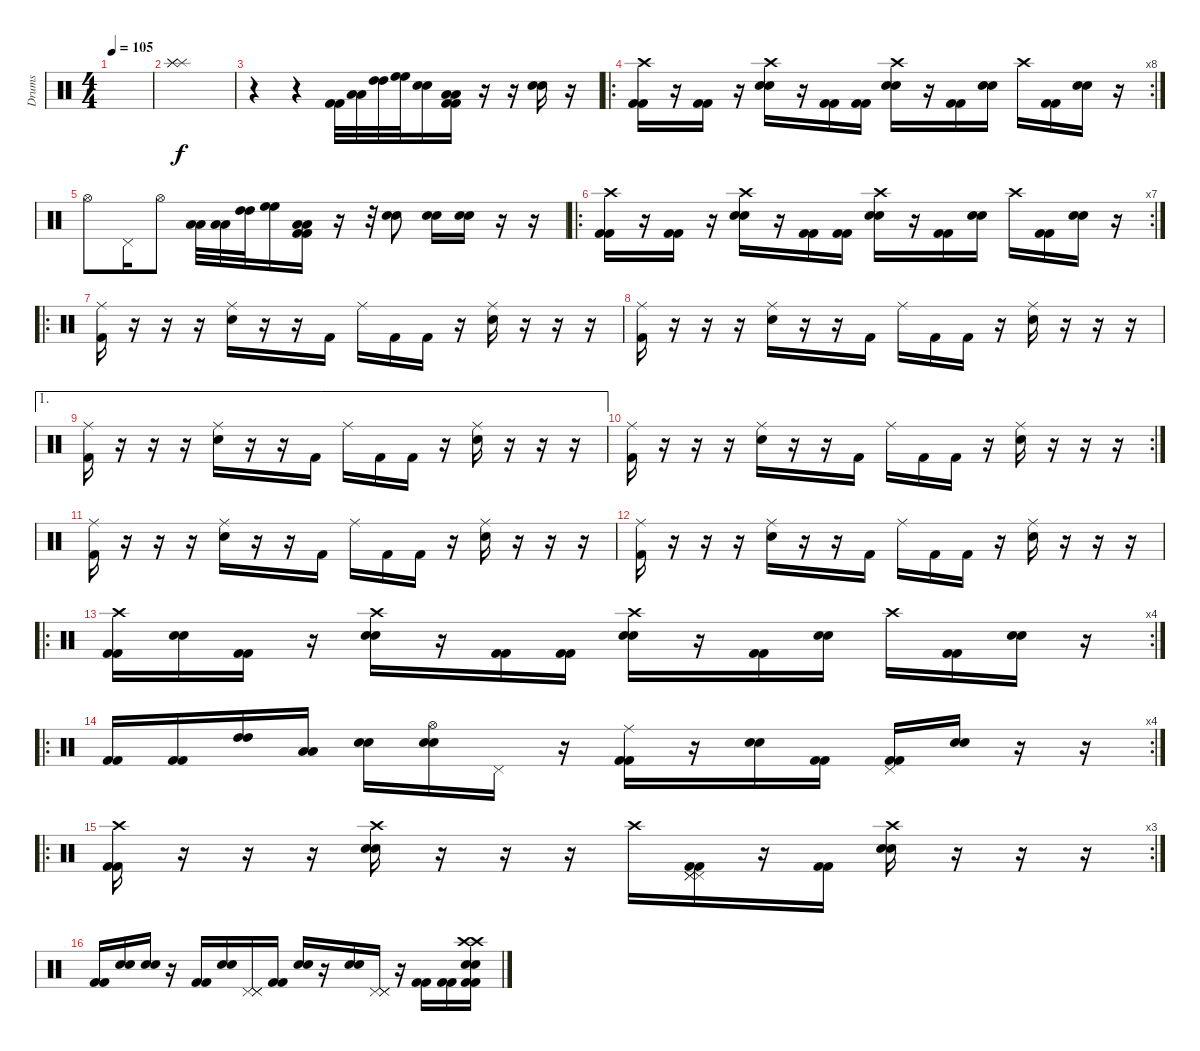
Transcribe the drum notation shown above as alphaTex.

\track ("Drums" "Drums") {instrument percussion}
\staff {score}
\articulation defaults
\ts (4 4)
\tempo 105
\clef neutral
\ks c
|
("Splash (hit)" "Splash (hit)" "Splash (hit)").1 |
r.4 r.4 ("Kick (hit) 2" "Kick (hit) 2").32 ("Low Tom (hit)" "Low Tom (hit)").32 ("High Tom (hit)" "High Tom (hit)").32 ("High Floor Tom (hit)" "High Floor Tom (hit)").32 ("Electric Snare (hit)" "Electric Snare (hit)").16 ("Low Tom (hit)" "Low Tom (hit)" "Kick (hit) 2" "Kick (hit) 2").16 r.16 r.16 ("Electric Snare (hit)" "Electric Snare (hit)").16 r.16 |
\ro
\rc 8
("Crash high (hit)" "Kick (hit) 2" "Kick (hit) 2").16 r.16 ("Kick (hit) 2" "Kick (hit) 2").16 r.16 ("Crash high (hit)" "Electric Snare (hit)" "Electric Snare (hit)").16 r.16 ("Kick (hit) 2" "Kick (hit) 2").16 ("Kick (hit) 2" "Kick (hit) 2").16 ("Crash high (hit)" "Electric Snare (hit)" "Electric Snare (hit)").16 r.16 ("Kick (hit) 2" "Kick (hit) 2").16 ("Electric Snare (hit)" "Electric Snare (hit)").16 "Crash high (hit)".16 ("Kick (hit) 2" "Kick (hit) 2").16 ("Electric Snare (hit)" "Electric Snare (hit)").16 r.16 |
"Hi-Hat (open)".8 "Pedal Hi-Hat (hit)".16 "Hi-Hat (open)".8 ("Low Tom (hit)" "Low Tom (hit)").32 ("Low Tom (hit)" "Low Tom (hit)").32 ("High Tom (hit)" "High Tom (hit)").32 ("High Floor Tom (hit)" "High Floor Tom (hit)").16 ("Low Tom (hit)" "Low Tom (hit)" "Kick (hit) 2" "Kick (hit) 2").16 r.16 r.32 ("Electric Snare (hit)" "Electric Snare (hit)").8 ("Electric Snare (hit)" "Electric Snare (hit)").16 ("Electric Snare (hit)" "Electric Snare (hit)").16 r.16 r.16 |
\ro
\rc 7
("Crash high (hit)" "Kick (hit) 2" "Kick (hit) 2").16 r.16 ("Kick (hit) 2" "Kick (hit) 2").16 r.16 ("Crash high (hit)" "Electric Snare (hit)" "Electric Snare (hit)").16 r.16 ("Kick (hit) 2" "Kick (hit) 2").16 ("Kick (hit) 2" "Kick (hit) 2").16 ("Crash high (hit)" "Electric Snare (hit)" "Electric Snare (hit)").16 r.16 ("Kick (hit) 2" "Kick (hit) 2").16 ("Electric Snare (hit)" "Electric Snare (hit)").16 "Crash high (hit)".16 ("Kick (hit) 2" "Kick (hit) 2").16 ("Electric Snare (hit)" "Electric Snare (hit)").16 r.16 |
\ro
("Ride (middle)" "Kick (hit) 2").16 r.16 r.16 r.16 ("Ride (middle)" "Electric Snare (hit)").16 r.16 r.16 "Kick (hit) 2".16 "Ride (middle)".16 "Kick (hit) 2".16 "Kick (hit) 2".16 r.16 ("Ride (middle)" "Electric Snare (hit)").16 r.16 r.16 r.16 |
("Ride (middle)" "Kick (hit) 2").16 r.16 r.16 r.16 ("Ride (middle)" "Electric Snare (hit)").16 r.16 r.16 "Kick (hit) 2".16 "Ride (middle)".16 "Kick (hit) 2".16 "Kick (hit) 2".16 r.16 ("Ride (middle)" "Electric Snare (hit)").16 r.16 r.16 r.16 |
\ae 1
("Ride (middle)" "Kick (hit) 2").16 r.16 r.16 r.16 ("Ride (middle)" "Electric Snare (hit)").16 r.16 r.16 "Kick (hit) 2".16 "Ride (middle)".16 "Kick (hit) 2".16 "Kick (hit) 2".16 r.16 ("Ride (middle)" "Electric Snare (hit)").16 r.16 r.16 r.16 |
\rc 2
("Ride (middle)" "Kick (hit) 2").16 r.16 r.16 r.16 ("Ride (middle)" "Electric Snare (hit)").16 r.16 r.16 "Kick (hit) 2".16 "Ride (middle)".16 "Kick (hit) 2".16 "Kick (hit) 2".16 r.16 ("Ride (middle)" "Electric Snare (hit)").16 r.16 r.16 r.16 |
("Ride (middle)" "Kick (hit) 2").16 r.16 r.16 r.16 ("Ride (middle)" "Electric Snare (hit)").16 r.16 r.16 "Kick (hit) 2".16 "Ride (middle)".16 "Kick (hit) 2".16 "Kick (hit) 2".16 r.16 ("Ride (middle)" "Electric Snare (hit)").16 r.16 r.16 r.16 |
("Ride (middle)" "Kick (hit) 2").16 r.16 r.16 r.16 ("Ride (middle)" "Electric Snare (hit)").16 r.16 r.16 "Kick (hit) 2".16 "Ride (middle)".16 "Kick (hit) 2".16 "Kick (hit) 2".16 r.16 ("Ride (middle)" "Electric Snare (hit)").16 r.16 r.16 r.16 |
\ro
\rc 4
("Crash high (hit)" "Kick (hit) 2" "Kick (hit) 2").16 ("Electric Snare (hit)" "Electric Snare (hit)").16 ("Kick (hit) 2" "Kick (hit) 2").16 r.16 ("Crash high (hit)" "Electric Snare (hit)" "Electric Snare (hit)").16 r.16 ("Kick (hit) 2" "Kick (hit) 2").16 ("Kick (hit) 2" "Kick (hit) 2").16 ("Crash high (hit)" "Electric Snare (hit)" "Electric Snare (hit)").16 r.16 ("Kick (hit) 2" "Kick (hit) 2").16 ("Electric Snare (hit)" "Electric Snare (hit)").16 "Crash high (hit)".16 ("Kick (hit) 2" "Kick (hit) 2").16 ("Electric Snare (hit)" "Electric Snare (hit)").16 r.16 |
\ro
\rc 4
("Kick (hit) 2" "Kick (hit) 2").16 ("Kick (hit) 2" "Kick (hit) 2").16 ("High Tom (hit)" "High Tom (hit)").16 ("Low Tom (hit)" "Low Tom (hit)").16 ("Electric Snare (hit)" "Electric Snare (hit)").16 ("Hi-Hat (open)" "Electric Snare (hit)" "Electric Snare (hit)").16 "Pedal Hi-Hat (hit)".16 r.16 ("Ride (middle)" "Kick (hit) 2" "Kick (hit) 2").16 r.16 ("Electric Snare (hit)" "Electric Snare (hit)").16 ("Kick (hit) 2" "Kick (hit) 2").16 ("Pedal Hi-Hat (hit)" "Kick (hit) 2" "Kick (hit) 2").16 ("Electric Snare (hit)" "Electric Snare (hit)").16 r.16 r.16 |
\ro
\rc 3
("Crash high (hit)" "Kick (hit) 2" "Kick (hit) 2").16 r.16 r.16 r.16 ("Crash high (hit)" "Electric Snare (hit)" "Electric Snare (hit)").16 r.16 r.16 r.16 "Crash high (hit)".16 ("Pedal Hi-Hat (hit)" "Pedal Hi-Hat (hit)" "Pedal Hi-Hat (hit)" "Kick (hit) 2" "Kick (hit) 2").16 r.16 ("Kick (hit) 2" "Kick (hit) 2").16 ("Crash high (hit)" "Electric Snare (hit)" "Electric Snare (hit)").16 r.16 r.16 r.16 |
("Kick (hit) 2" "Kick (hit) 2").16 ("Electric Snare (hit)" "Electric Snare (hit)").16 ("Electric Snare (hit)" "Electric Snare (hit)").16 r.16 ("Kick (hit) 2" "Kick (hit) 2").16 ("Electric Snare (hit)" "Electric Snare (hit)").16 ("Pedal Hi-Hat (hit)" "Pedal Hi-Hat (hit)" "Pedal Hi-Hat (hit)").16 ("Kick (hit) 2" "Kick (hit) 2").16 ("Electric Snare (hit)" "Electric Snare (hit)").16 r.16 ("Electric Snare (hit)" "Electric Snare (hit)").16 ("Pedal Hi-Hat (hit)" "Pedal Hi-Hat (hit)" "Pedal Hi-Hat (hit)").16 r.16 ("Kick (hit) 2" "Kick (hit) 2").16 ("Kick (hit) 2" "Kick (hit) 2").16 ("Crash high (hit)" "Crash high (hit)" "Electric Snare (hit)" "Electric Snare (hit)" "Kick (hit) 2" "Kick (hit) 2").16
